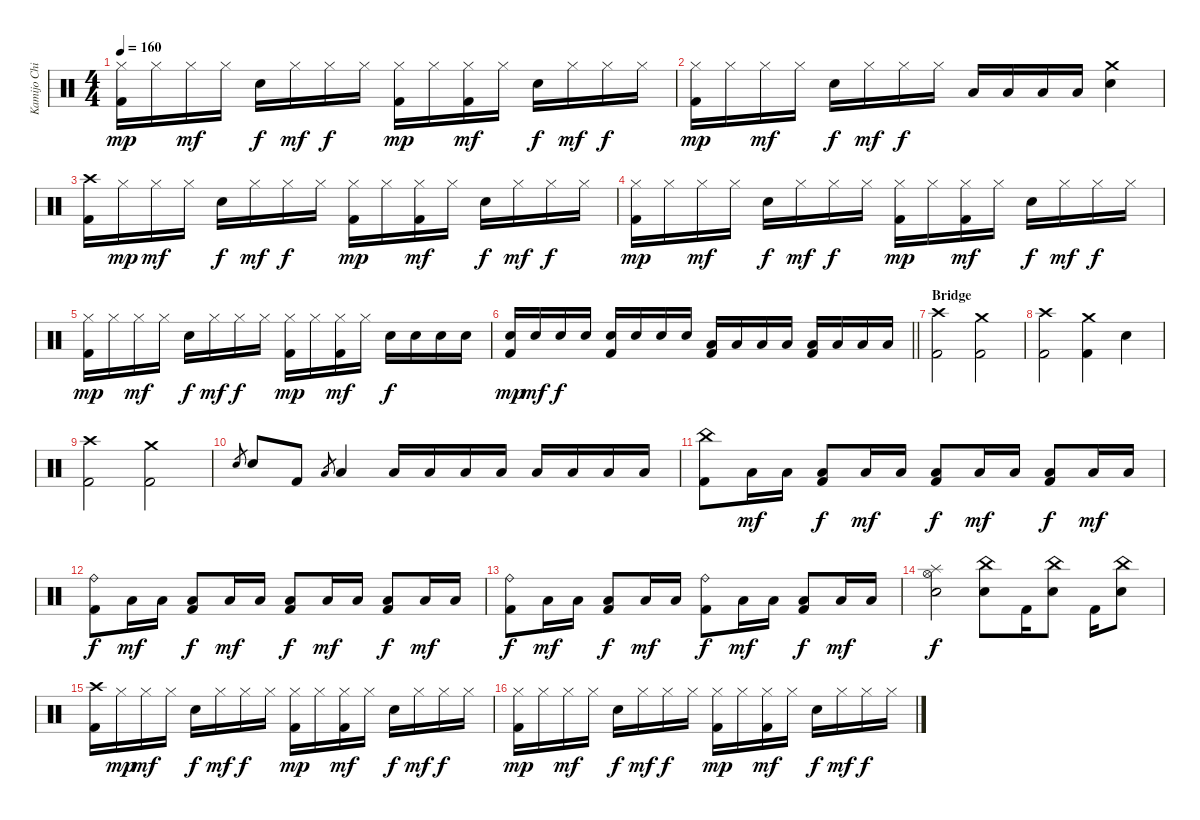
\track ("Kamijo Chihiro" "Kamijo Chi") {instrument percussion}
\staff {score}
\articulation defaults
\ts (4 4)
\tempo 160
\clef neutral
\ks c
("Hi-Hat (closed)" "Kick (hit) 2").16{dy mp} "Hi-Hat (closed)".16 "Hi-Hat (closed)".16{dy mf} "Hi-Hat (closed)".16 "Snare (hit) 2".16{dy f} "Hi-Hat (closed)".16{dy mf} "Hi-Hat (closed)".16{dy f} "Hi-Hat (closed)".16 ("Hi-Hat (closed)" "Kick (hit) 2").16{dy mp} "Hi-Hat (closed)".16 ("Hi-Hat (closed)" "Kick (hit) 2").16{dy mf} "Hi-Hat (closed)".16 "Snare (hit) 2".16{dy f} "Hi-Hat (closed)".16{dy mf} "Hi-Hat (closed)".16{dy f} "Hi-Hat (closed)".16 |
("Hi-Hat (closed)" "Kick (hit) 2").16{dy mp} "Hi-Hat (closed)".16 "Hi-Hat (closed)".16{dy mf} "Hi-Hat (closed)".16 "Snare (hit) 2".16{dy f} "Hi-Hat (closed)".16{dy mf} "Hi-Hat (closed)".16{dy f} "Hi-Hat (closed)".16 "Low Tom (hit)".16 "Low Tom (hit)".16 "Low Floor Tom (hit)".16 "Low Floor Tom (hit)".16 ("Crash medium (hit)" "Snare (hit) 2").4 |
("Crash high (hit)" "Kick (hit) 2").16 "Hi-Hat (closed)".16{dy mp} "Hi-Hat (closed)".16{dy mf} "Hi-Hat (closed)".16 "Snare (hit) 2".16{dy f} "Hi-Hat (closed)".16{dy mf} "Hi-Hat (closed)".16{dy f} "Hi-Hat (closed)".16 ("Hi-Hat (closed)" "Kick (hit) 2").16{dy mp} "Hi-Hat (closed)".16 ("Hi-Hat (closed)" "Kick (hit) 2").16{dy mf} "Hi-Hat (closed)".16 "Snare (hit) 2".16{dy f} "Hi-Hat (closed)".16{dy mf} "Hi-Hat (closed)".16{dy f} "Hi-Hat (closed)".16 |
("Hi-Hat (closed)" "Kick (hit) 2").16{dy mp} "Hi-Hat (closed)".16 "Hi-Hat (closed)".16{dy mf} "Hi-Hat (closed)".16 "Snare (hit) 2".16{dy f} "Hi-Hat (closed)".16{dy mf} "Hi-Hat (closed)".16{dy f} "Hi-Hat (closed)".16 ("Hi-Hat (closed)" "Kick (hit) 2").16{dy mp} "Hi-Hat (closed)".16 ("Hi-Hat (closed)" "Kick (hit) 2").16{dy mf} "Hi-Hat (closed)".16 "Snare (hit) 2".16{dy f} "Hi-Hat (closed)".16{dy mf} "Hi-Hat (closed)".16{dy f} "Hi-Hat (closed)".16 |
("Hi-Hat (closed)" "Kick (hit) 2").16{dy mp} "Hi-Hat (closed)".16 "Hi-Hat (closed)".16{dy mf} "Hi-Hat (closed)".16 "Snare (hit) 2".16{dy f} "Hi-Hat (closed)".16{dy mf} "Hi-Hat (closed)".16{dy f} "Hi-Hat (closed)".16 ("Hi-Hat (closed)" "Kick (hit) 2").16{dy mp} "Hi-Hat (closed)".16 ("Hi-Hat (closed)" "Kick (hit) 2").16{dy mf} "Hi-Hat (closed)".16 "Snare (hit) 2".16{dy f} "Snare (hit) 2".16 "Snare (hit) 2".16 "Snare (hit) 2".16 |
\barLineRight lightlight
("Snare (hit) 2" "Kick (hit) 2").16{dy mp} "Snare (hit) 2".16{dy mf} "Snare (hit) 2".16{dy f} "Snare (hit) 2".16 ("Snare (hit) 2" "Kick (hit) 2").16 "Snare (hit) 2".16 "Snare (hit) 2".16 "Snare (hit) 2".16 ("Low Tom (hit)" "Kick (hit) 2").16 "Low Tom (hit)".16 "Low Tom (hit)".16 "Low Tom (hit)".16 ("Low Floor Tom (hit)" "Kick (hit) 2").16 "Low Floor Tom (hit)".16 "Low Floor Tom (hit)".16 "Low Floor Tom (hit)".16 |
\section ("" "Bridge")
("Crash high (hit)" "Kick (hit) 2").2 ("Crash medium (hit)" "Kick (hit) 2").2 |
("Crash high (hit)" "Kick (hit) 2").2 ("Crash medium (hit)" "Kick (hit) 2").4 "Snare (hit) 2".4 |
("Crash high (hit)" "Kick (hit) 2").2 ("Crash medium (hit)" "Kick (hit) 2").2 |
"Snare (hit) 2".8{gr} "Snare (hit) 2".8 "Kick (hit) 2".8 "Low Tom (hit)".8{gr} "Low Tom (hit)".4 "Low Tom (hit)".16 "Low Tom (hit)".16 "Low Tom (hit)".16 "Low Tom (hit)".16 "Low Floor Tom (hit)".16 "Low Floor Tom (hit)".16 "Low Floor Tom (hit)".16 "Low Floor Tom (hit)".16 |
("China (hit)" "Kick (hit) 2").8 "Low Floor Tom (hit)".16{dy mf} "Low Floor Tom (hit)".16 ("Low Floor Tom (hit)" "Kick (hit) 2").8{dy f} "Low Floor Tom (hit)".16{dy mf} "Low Floor Tom (hit)".16 ("Low Floor Tom (hit)" "Kick (hit) 2").8{dy f} "Low Floor Tom (hit)".16{dy mf} "Low Floor Tom (hit)".16 ("Low Floor Tom (hit)" "Kick (hit) 2").8{dy f} "Low Floor Tom (hit)".16{dy mf} "Low Floor Tom (hit)".16 |
("Ride (bell)" "Kick (hit) 2").8{dy f} "Low Floor Tom (hit)".16{dy mf} "Low Floor Tom (hit)".16 ("Low Floor Tom (hit)" "Kick (hit) 2").8{dy f} "Low Floor Tom (hit)".16{dy mf} "Low Floor Tom (hit)".16 ("Low Floor Tom (hit)" "Kick (hit) 2").8{dy f} "Low Floor Tom (hit)".16{dy mf} "Low Floor Tom (hit)".16 ("Low Floor Tom (hit)" "Kick (hit) 2").8{dy f} "Low Floor Tom (hit)".16{dy mf} "Low Floor Tom (hit)".16 |
("Ride (bell)" "Kick (hit) 2").8{dy f} "Low Floor Tom (hit)".16{dy mf} "Low Floor Tom (hit)".16 ("Low Floor Tom (hit)" "Kick (hit) 2").8{dy f} "Low Floor Tom (hit)".16{dy mf} "Low Floor Tom (hit)".16 ("Ride (bell)" "Kick (hit) 2").8{dy f} "Low Floor Tom (hit)".16{dy mf} "Low Floor Tom (hit)".16 ("Low Floor Tom (hit)" "Kick (hit) 2").8{dy f} "Low Floor Tom (hit)".16{dy mf} "Low Floor Tom (hit)".16 |
("Splash (hit)" "Hi-Hat (open)" "Snare (hit) 2").2{dy f} ("China (hit)" "Snare (hit) 2").8 "Kick (hit) 2".16 ("China (hit)" "Snare (hit) 2").8 "Kick (hit) 2".16 ("China (hit)" "Snare (hit) 2").8 |
("Crash high (hit)" "Kick (hit) 2").16 "Hi-Hat (closed)".16{dy mp} "Hi-Hat (closed)".16{dy mf} "Hi-Hat (closed)".16 "Snare (hit) 2".16{dy f} "Hi-Hat (closed)".16{dy mf} "Hi-Hat (closed)".16{dy f} "Hi-Hat (closed)".16 ("Hi-Hat (closed)" "Kick (hit) 2").16{dy mp} "Hi-Hat (closed)".16 ("Hi-Hat (closed)" "Kick (hit) 2").16{dy mf} "Hi-Hat (closed)".16 "Snare (hit) 2".16{dy f} "Hi-Hat (closed)".16{dy mf} "Hi-Hat (closed)".16{dy f} "Hi-Hat (closed)".16 |
("Hi-Hat (closed)" "Kick (hit) 2").16{dy mp} "Hi-Hat (closed)".16 "Hi-Hat (closed)".16{dy mf} "Hi-Hat (closed)".16 "Snare (hit) 2".16{dy f} "Hi-Hat (closed)".16{dy mf} "Hi-Hat (closed)".16{dy f} "Hi-Hat (closed)".16 ("Hi-Hat (closed)" "Kick (hit) 2").16{dy mp} "Hi-Hat (closed)".16 ("Hi-Hat (closed)" "Kick (hit) 2").16{dy mf} "Hi-Hat (closed)".16 "Snare (hit) 2".16{dy f} "Hi-Hat (closed)".16{dy mf} "Hi-Hat (closed)".16{dy f} "Hi-Hat (closed)".16
